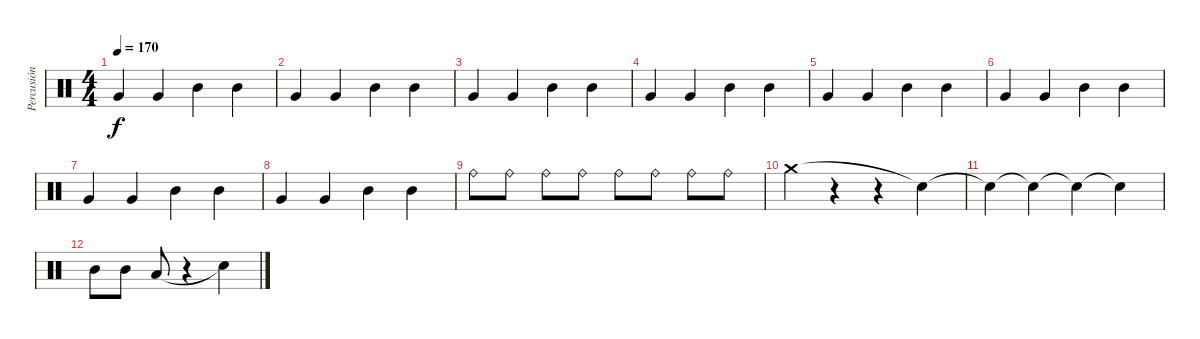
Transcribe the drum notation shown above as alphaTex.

\track ("Percusión" "Percusión") {instrument percussion}
\staff {score}
\articulation defaults
\ts (4 4)
\tempo 170
\clef neutral
\ks c "Very Low Tom (hit)".4{dy f} "Very Low Tom (hit)".4 "Mid Tom (hit)".4 "Mid Tom (hit)".4
|
"Very Low Tom (hit)".4 "Very Low Tom (hit)".4 "Mid Tom (hit)".4 "Mid Tom (hit)".4 |
"Very Low Tom (hit)".4 "Very Low Tom (hit)".4 "Mid Tom (hit)".4 "Mid Tom (hit)".4 |
"Very Low Tom (hit)".4 "Very Low Tom (hit)".4 "Mid Tom (hit)".4 "Mid Tom (hit)".4 |
"Very Low Tom (hit)".4 "Very Low Tom (hit)".4 "Mid Tom (hit)".4 "Mid Tom (hit)".4 |
"Very Low Tom (hit)".4 "Very Low Tom (hit)".4 "Mid Tom (hit)".4 "Mid Tom (hit)".4 |
"Very Low Tom (hit)".4 "Very Low Tom (hit)".4 "Mid Tom (hit)".4 "Mid Tom (hit)".4 |
"Very Low Tom (hit)".4 "Very Low Tom (hit)".4 "Mid Tom (hit)".4 "Mid Tom (hit)".4 |
"Ride (bell)".8 "Ride (bell)".8 "Ride (bell)".8 "Ride (bell)".8 "Ride (bell)".8 "Ride (bell)".8 "Ride (bell)".8 "Ride (bell)".8 |
"Crash medium (hit)".4 r.4 r.4 "Snare (hit)"{t}.4 |
"Snare (hit)"{t}.4 "Snare (hit)"{t}.4 "Snare (hit)"{t}.4 "Snare (hit)"{t}.4 |
"Mid Tom (hit)".8 "Mid Tom (hit)".8 "Low Tom (hit)".8 r.4 "Snare (hit)"{t}.4
